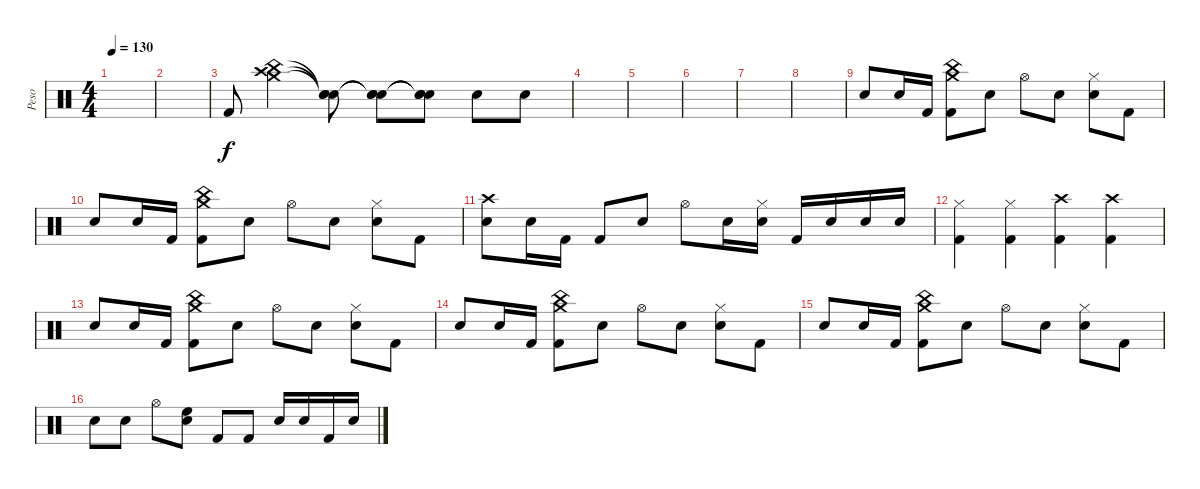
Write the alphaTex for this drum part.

\track ("Peso" "Peso") {instrument percussion}
\staff {score}
\articulation defaults
\ts (4 4)
\tempo 130
\clef neutral
\ks c
|
|
"Kick (hit) 2".8 ("Crash high (hit)" "Crash medium (hit)" "China (hit)").4 ("Snare (hit)"{t} "Snare (hit)"{t} "Snare (hit)"{t}).8 ("Snare (hit)"{t} "Snare (hit)"{t} "Snare (hit)"{t}).8 ("Snare (hit)"{t} "Snare (hit)"{t} "Snare (hit)"{t}).8 "Snare (hit)"{x}.8 "Snare (hit)"{x}.8 |
|
|
|
|
|
"Snare (hit) 2".8 "Snare (hit) 2".16 "Kick (hit) 2".16 ("China (hit)" "Crash medium (hit)" "Kick (hit) 2").8 "Snare (hit) 2".8 "Hi-Hat (open)".8 "Snare (hit) 2".8 ("Hi-Hat (closed)" "Snare (hit) 2").8 "Kick (hit) 2".8 |
"Snare (hit) 2".8 "Snare (hit) 2".16 "Kick (hit) 2".16 ("China (hit)" "Crash medium (hit)" "Kick (hit) 2").8 "Snare (hit) 2".8 "Hi-Hat (open)".8 "Snare (hit) 2".8 ("Hi-Hat (closed)" "Snare (hit) 2").8 "Kick (hit) 2".8 |
("Crash high (hit)" "Snare (hit) 2").8 "Snare (hit) 2".16 "Kick (hit) 2".16 "Kick (hit) 2".8 "Snare (hit) 2".8 "Hi-Hat (open)".8 "Snare (hit) 2".16 ("Hi-Hat (closed)" "Snare (hit) 2").16 "Kick (hit) 2".16 "Snare (hit) 2".16 "Snare (hit) 2".16 "Snare (hit) 2".16 |
("Hi-Hat (closed)" "Kick (hit) 2").4 ("Hi-Hat (closed)" "Kick (hit) 2").4 ("Crash high (hit)" "Kick (hit) 2").4 ("Crash high (hit)" "Kick (hit) 2").4 |
"Snare (hit) 2".8 "Snare (hit) 2".16 "Kick (hit) 2".16 ("China (hit)" "Crash medium (hit)" "Kick (hit) 2").8 "Snare (hit) 2".8 "Hi-Hat (open)".8 "Snare (hit) 2".8 ("Hi-Hat (closed)" "Snare (hit) 2").8 "Kick (hit) 2".8 |
"Snare (hit) 2".8 "Snare (hit) 2".16 "Kick (hit) 2".16 ("China (hit)" "Crash medium (hit)" "Kick (hit) 2").8 "Snare (hit) 2".8 "Hi-Hat (open)".8 "Snare (hit) 2".8 ("Hi-Hat (closed)" "Snare (hit) 2").8 "Kick (hit) 2".8 |
"Snare (hit) 2".8 "Snare (hit) 2".16 "Kick (hit) 2".16 ("China (hit)" "Crash medium (hit)" "Kick (hit) 2").8 "Snare (hit) 2".8 "Hi-Hat (open)".8 "Snare (hit) 2".8 ("Hi-Hat (closed)" "Snare (hit) 2").8 "Kick (hit) 2".8 |
"Snare (hit) 2".8 "Snare (hit) 2".8 "Hi-Hat (open)".8 ("High Floor Tom (hit)" "Snare (hit) 2").8 "Kick (hit) 2".8 "Kick (hit) 2".8 "Snare (hit) 2".16 "Snare (hit) 2".16 "Kick (hit) 2".16 "Snare (hit) 2".16
